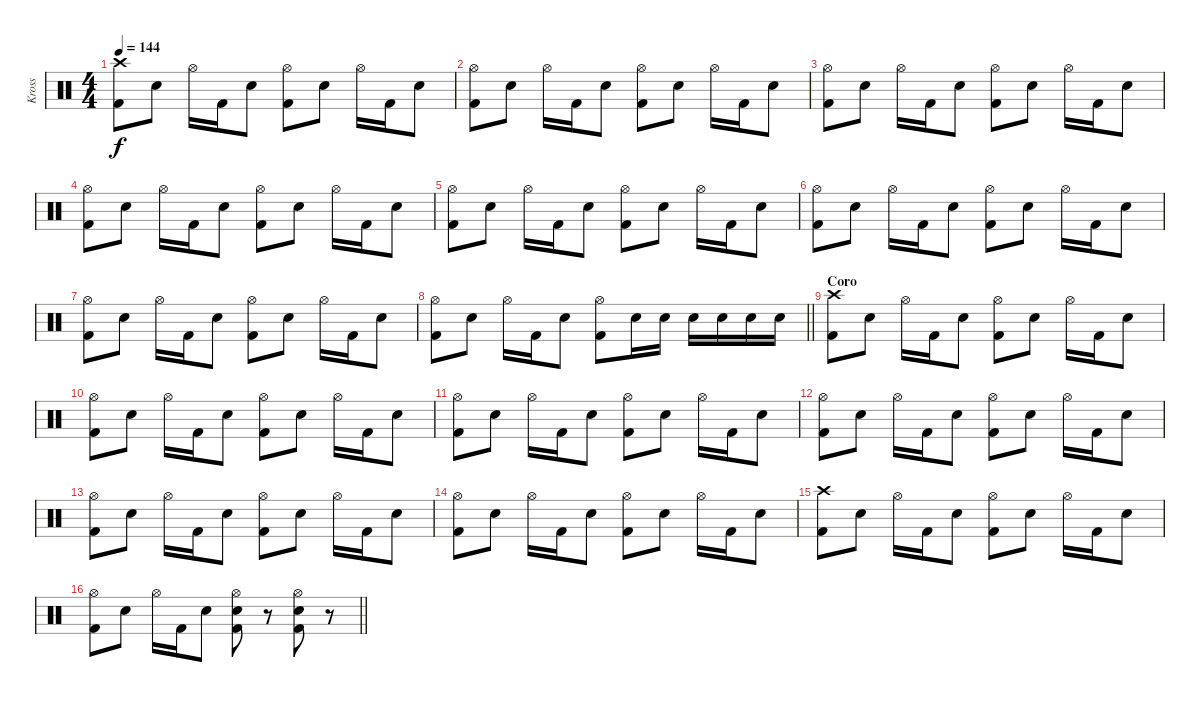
\track ("Kross" "Kross") {instrument percussion}
\staff {score}
\articulation defaults
\ts (4 4)
\tempo 144
\clef neutral
\ks c
("Crash high (hit)" "Kick (hit) 2").8{dy f} "Electric Snare (hit)".8 "Hi-Hat (open)".16 "Kick (hit) 2".16 "Electric Snare (hit)".8 ("Hi-Hat (open)" "Kick (hit) 2").8 "Electric Snare (hit)".8 "Hi-Hat (open)".16 "Kick (hit) 2".16 "Electric Snare (hit)".8 |
("Hi-Hat (open)" "Kick (hit) 2").8 "Electric Snare (hit)".8 "Hi-Hat (open)".16 "Kick (hit) 2".16 "Electric Snare (hit)".8 ("Hi-Hat (open)" "Kick (hit) 2").8 "Electric Snare (hit)".8 "Hi-Hat (open)".16 "Kick (hit) 2".16 "Electric Snare (hit)".8 |
("Hi-Hat (open)" "Kick (hit) 2").8 "Electric Snare (hit)".8 "Hi-Hat (open)".16 "Kick (hit) 2".16 "Electric Snare (hit)".8 ("Hi-Hat (open)" "Kick (hit) 2").8 "Electric Snare (hit)".8 "Hi-Hat (open)".16 "Kick (hit) 2".16 "Electric Snare (hit)".8 |
("Hi-Hat (open)" "Kick (hit) 2").8 "Electric Snare (hit)".8 "Hi-Hat (open)".16 "Kick (hit) 2".16 "Electric Snare (hit)".8 ("Hi-Hat (open)" "Kick (hit) 2").8 "Electric Snare (hit)".8 "Hi-Hat (open)".16 "Kick (hit) 2".16 "Electric Snare (hit)".8 |
("Hi-Hat (open)" "Kick (hit) 2").8 "Electric Snare (hit)".8 "Hi-Hat (open)".16 "Kick (hit) 2".16 "Electric Snare (hit)".8 ("Hi-Hat (open)" "Kick (hit) 2").8 "Electric Snare (hit)".8 "Hi-Hat (open)".16 "Kick (hit) 2".16 "Electric Snare (hit)".8 |
("Hi-Hat (open)" "Kick (hit) 2").8 "Electric Snare (hit)".8 "Hi-Hat (open)".16 "Kick (hit) 2".16 "Electric Snare (hit)".8 ("Hi-Hat (open)" "Kick (hit) 2").8 "Electric Snare (hit)".8 "Hi-Hat (open)".16 "Kick (hit) 2".16 "Electric Snare (hit)".8 |
("Hi-Hat (open)" "Kick (hit) 2").8 "Electric Snare (hit)".8 "Hi-Hat (open)".16 "Kick (hit) 2".16 "Electric Snare (hit)".8 ("Hi-Hat (open)" "Kick (hit) 2").8 "Electric Snare (hit)".8 "Hi-Hat (open)".16 "Kick (hit) 2".16 "Electric Snare (hit)".8 |
\barLineRight lightlight
("Hi-Hat (open)" "Kick (hit) 2").8 "Electric Snare (hit)".8 "Hi-Hat (open)".16 "Kick (hit) 2".16 "Electric Snare (hit)".8 ("Hi-Hat (open)" "Kick (hit) 2").8 "Electric Snare (hit)".16 "Electric Snare (hit)".16 "Electric Snare (hit)".16 "Electric Snare (hit)".16 "Electric Snare (hit)".16 "Electric Snare (hit)".16 |
\section ("" "Coro")
("Crash high (hit)" "Kick (hit) 2").8 "Electric Snare (hit)".8 "Hi-Hat (open)".16 "Kick (hit) 2".16 "Electric Snare (hit)".8 ("Hi-Hat (open)" "Kick (hit) 2").8 "Electric Snare (hit)".8 "Hi-Hat (open)".16 "Kick (hit) 2".16 "Electric Snare (hit)".8 |
("Hi-Hat (open)" "Kick (hit) 2").8 "Electric Snare (hit)".8 "Hi-Hat (open)".16 "Kick (hit) 2".16 "Electric Snare (hit)".8 ("Hi-Hat (open)" "Kick (hit) 2").8 "Electric Snare (hit)".8 "Hi-Hat (open)".16 "Kick (hit) 2".16 "Electric Snare (hit)".8 |
("Hi-Hat (open)" "Kick (hit) 2").8 "Electric Snare (hit)".8 "Hi-Hat (open)".16 "Kick (hit) 2".16 "Electric Snare (hit)".8 ("Hi-Hat (open)" "Kick (hit) 2").8 "Electric Snare (hit)".8 "Hi-Hat (open)".16 "Kick (hit) 2".16 "Electric Snare (hit)".8 |
("Hi-Hat (open)" "Kick (hit) 2").8 "Electric Snare (hit)".8 "Hi-Hat (open)".16 "Kick (hit) 2".16 "Electric Snare (hit)".8 ("Hi-Hat (open)" "Kick (hit) 2").8 "Electric Snare (hit)".8 "Hi-Hat (open)".16 "Kick (hit) 2".16 "Electric Snare (hit)".8 |
("Hi-Hat (open)" "Kick (hit) 2").8 "Electric Snare (hit)".8 "Hi-Hat (open)".16 "Kick (hit) 2".16 "Electric Snare (hit)".8 ("Hi-Hat (open)" "Kick (hit) 2").8 "Electric Snare (hit)".8 "Hi-Hat (open)".16 "Kick (hit) 2".16 "Electric Snare (hit)".8 |
("Hi-Hat (open)" "Kick (hit) 2").8 "Electric Snare (hit)".8 "Hi-Hat (open)".16 "Kick (hit) 2".16 "Electric Snare (hit)".8 ("Hi-Hat (open)" "Kick (hit) 2").8 "Electric Snare (hit)".8 "Hi-Hat (open)".16 "Kick (hit) 2".16 "Electric Snare (hit)".8 |
("Crash high (hit)" "Kick (hit) 2").8 "Electric Snare (hit)".8 "Hi-Hat (open)".16 "Kick (hit) 2".16 "Electric Snare (hit)".8 ("Hi-Hat (open)" "Kick (hit) 2").8 "Electric Snare (hit)".8 "Hi-Hat (open)".16 "Kick (hit) 2".16 "Electric Snare (hit)".8 |
\barLineRight lightlight
("Hi-Hat (open)" "Kick (hit) 2").8 "Electric Snare (hit)".8 "Hi-Hat (open)".16 "Kick (hit) 2".16 "Electric Snare (hit)".8 ("Hi-Hat (open)" "Electric Snare (hit)" "Kick (hit) 2").8 r.8 ("Hi-Hat (open)" "Electric Snare (hit)" "Kick (hit) 2").8 r.8
